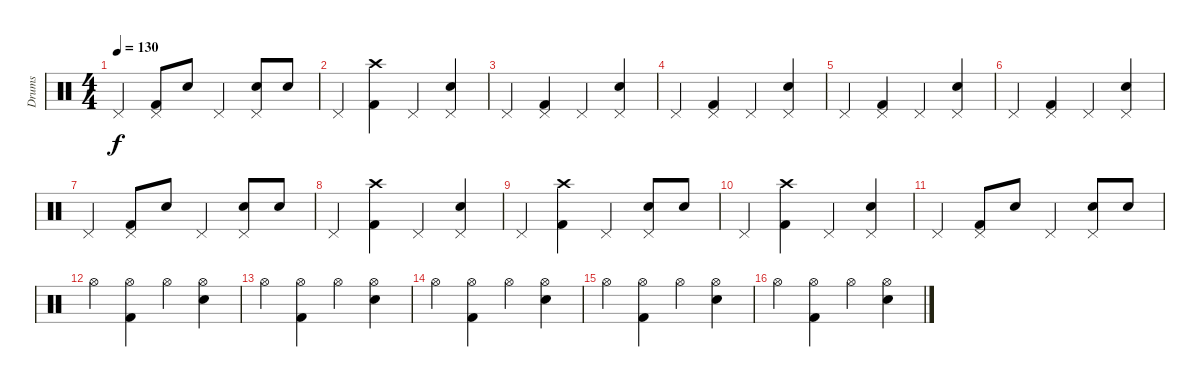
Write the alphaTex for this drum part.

\track ("Drums" "Drums") {instrument percussion}
\staff {score}
\articulation defaults
\ts (4 4)
\tempo 130
\clef neutral
\ks c "Pedal Hi-Hat (hit)".4{dy f}
("Kick (hit) 2" "Pedal Hi-Hat (hit)").8 "Snare (hit) 2".8 "Pedal Hi-Hat (hit)".4 ("Snare (hit) 2" "Pedal Hi-Hat (hit)").8 "Snare (hit) 2".8 |
"Pedal Hi-Hat (hit)".4 ("Kick (hit) 2" "Crash high (hit)").4 "Pedal Hi-Hat (hit)".4 ("Snare (hit) 2" "Pedal Hi-Hat (hit)").4 |
"Pedal Hi-Hat (hit)".4 ("Kick (hit) 2" "Pedal Hi-Hat (hit)").4 "Pedal Hi-Hat (hit)".4 ("Snare (hit) 2" "Pedal Hi-Hat (hit)").4 |
"Pedal Hi-Hat (hit)".4 ("Kick (hit) 2" "Pedal Hi-Hat (hit)").4 "Pedal Hi-Hat (hit)".4 ("Snare (hit) 2" "Pedal Hi-Hat (hit)").4 |
"Pedal Hi-Hat (hit)".4 ("Kick (hit) 2" "Pedal Hi-Hat (hit)").4 "Pedal Hi-Hat (hit)".4 ("Snare (hit) 2" "Pedal Hi-Hat (hit)").4 |
"Pedal Hi-Hat (hit)".4 ("Kick (hit) 2" "Pedal Hi-Hat (hit)").4 "Pedal Hi-Hat (hit)".4 ("Snare (hit) 2" "Pedal Hi-Hat (hit)").4 |
"Pedal Hi-Hat (hit)".4 ("Kick (hit) 2" "Pedal Hi-Hat (hit)").8 "Snare (hit) 2".8 "Pedal Hi-Hat (hit)".4 ("Snare (hit) 2" "Pedal Hi-Hat (hit)").8 "Snare (hit) 2".8 |
"Pedal Hi-Hat (hit)".4 ("Kick (hit) 2" "Crash high (hit)").4 "Pedal Hi-Hat (hit)".4 ("Snare (hit) 2" "Pedal Hi-Hat (hit)").4 |
"Pedal Hi-Hat (hit)".4 ("Kick (hit) 2" "Crash high (hit)").4 "Pedal Hi-Hat (hit)".4 ("Snare (hit) 2" "Pedal Hi-Hat (hit)").8 "Snare (hit) 2".8 |
"Pedal Hi-Hat (hit)".4 ("Kick (hit) 2" "Crash high (hit)").4 "Pedal Hi-Hat (hit)".4 ("Snare (hit) 2" "Pedal Hi-Hat (hit)").4 |
"Pedal Hi-Hat (hit)".4 ("Kick (hit) 2" "Pedal Hi-Hat (hit)").8 "Snare (hit) 2".8 "Pedal Hi-Hat (hit)".4 ("Snare (hit) 2" "Pedal Hi-Hat (hit)").8 "Snare (hit) 2".8 |
"Hi-Hat (open)".4 ("Kick (hit) 2" "Hi-Hat (open)").4 "Hi-Hat (open)".4 ("Snare (hit) 2" "Hi-Hat (open)").4 |
"Hi-Hat (open)".4 ("Kick (hit) 2" "Hi-Hat (open)").4 "Hi-Hat (open)".4 ("Snare (hit) 2" "Hi-Hat (open)").4 |
"Hi-Hat (open)".4 ("Kick (hit) 2" "Hi-Hat (open)").4 "Hi-Hat (open)".4 ("Snare (hit) 2" "Hi-Hat (open)").4 |
"Hi-Hat (open)".4 ("Kick (hit) 2" "Hi-Hat (open)").4 "Hi-Hat (open)".4 ("Snare (hit) 2" "Hi-Hat (open)").4 |
"Hi-Hat (open)".4 ("Kick (hit) 2" "Hi-Hat (open)").4 "Hi-Hat (open)".4 ("Snare (hit) 2" "Hi-Hat (open)").4
